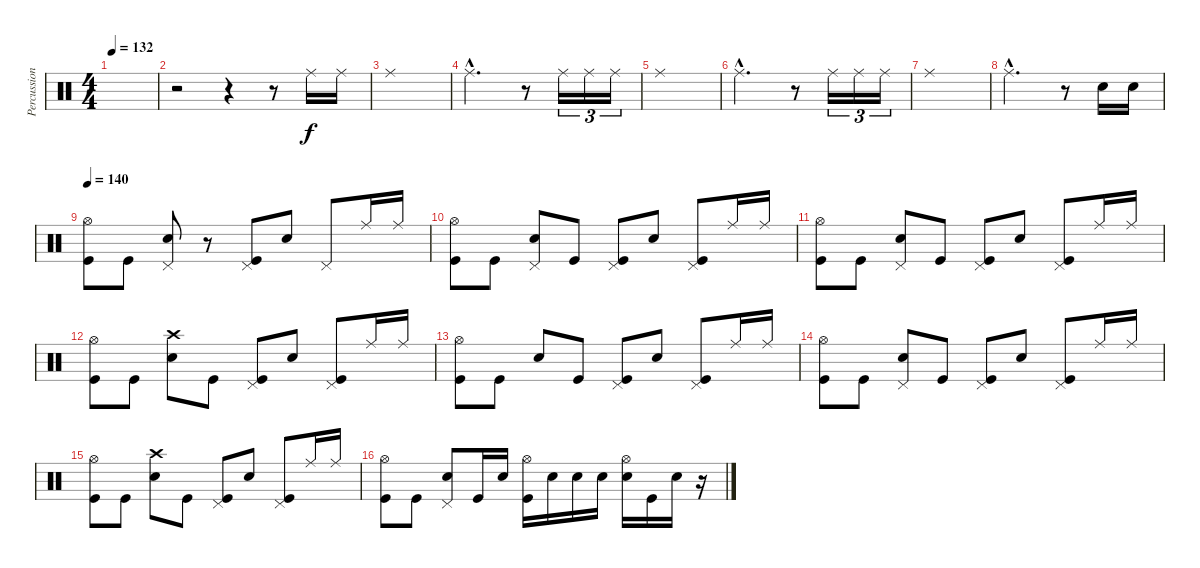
\track ("Percussion" "Percussion") {instrument percussion}
\staff {score}
\articulation defaults
\ts (4 4)
\tempo 132
\clef neutral
\ks c
|
r.2 r.4 r.8 "Ride (middle)".16 "Ride (middle)".16 |
"Ride (middle)".1 |
"Ride (middle)"{hac}.2{d} r.8 "Ride (middle)".16{tu (3 2)} "Ride (middle)".16{tu (3 2)} "Ride (middle)".16{tu (3 2)} |
"Ride (middle)".1 |
"Ride (middle)"{hac}.2{d} r.8 "Ride (middle)".16{tu (3 2)} "Ride (middle)".16{tu (3 2)} "Ride (middle)".16{tu (3 2)} |
"Ride (middle)".1 |
"Ride (middle)"{hac}.2{d} r.8 "Snare (hit) 2".16 "Snare (hit) 2".16 |
\tempo 140
("Hi-Hat (open)" "Kick (hit)").8 "Kick (hit)".8 ("Pedal Hi-Hat (hit)" "Snare (hit) 2").8 r.8 ("Pedal Hi-Hat (hit)" "Kick (hit)").8 "Snare (hit) 2".8 "Pedal Hi-Hat (hit)".8 "Ride (middle)".16 "Ride (middle)".16 |
("Hi-Hat (open)" "Kick (hit)").8 "Kick (hit)".8 ("Pedal Hi-Hat (hit)" "Snare (hit) 2").8 "Kick (hit)".8 ("Pedal Hi-Hat (hit)" "Kick (hit)").8 "Snare (hit) 2".8 ("Pedal Hi-Hat (hit)" "Kick (hit)").8 "Ride (middle)".16 "Ride (middle)".16 |
("Hi-Hat (open)" "Kick (hit)").8 "Kick (hit)".8 ("Pedal Hi-Hat (hit)" "Snare (hit) 2").8 "Kick (hit)".8 ("Pedal Hi-Hat (hit)" "Kick (hit)").8 "Snare (hit) 2".8 ("Pedal Hi-Hat (hit)" "Kick (hit)").8 "Ride (middle)".16 "Ride (middle)".16 |
("Hi-Hat (open)" "Kick (hit)").8 "Kick (hit)".8 ("Crash high (hit)" "Snare (hit) 2").8 "Kick (hit)".8 ("Pedal Hi-Hat (hit)" "Kick (hit)").8 "Snare (hit) 2".8 ("Pedal Hi-Hat (hit)" "Kick (hit)").8 "Ride (middle)".16 "Ride (middle)".16 |
("Hi-Hat (open)" "Kick (hit)").8 "Kick (hit)".8 "Snare (hit) 2".8 "Kick (hit)".8 ("Pedal Hi-Hat (hit)" "Kick (hit)").8 "Snare (hit) 2".8 ("Pedal Hi-Hat (hit)" "Kick (hit)").8 "Ride (middle)".16 "Ride (middle)".16 |
("Hi-Hat (open)" "Kick (hit)").8 "Kick (hit)".8 ("Pedal Hi-Hat (hit)" "Snare (hit) 2").8 "Kick (hit)".8 ("Pedal Hi-Hat (hit)" "Kick (hit)").8 "Snare (hit) 2".8 ("Pedal Hi-Hat (hit)" "Kick (hit)").8 "Ride (middle)".16 "Ride (middle)".16 |
("Hi-Hat (open)" "Kick (hit)").8 "Kick (hit)".8 ("Crash high (hit)" "Snare (hit) 2").8 "Kick (hit)".8 ("Pedal Hi-Hat (hit)" "Kick (hit)").8 "Snare (hit) 2".8 ("Pedal Hi-Hat (hit)" "Kick (hit)").8 "Ride (middle)".16 "Ride (middle)".16 |
("Hi-Hat (open)" "Kick (hit)").8 "Kick (hit)".8 ("Pedal Hi-Hat (hit)" "Snare (hit) 2").8 "Kick (hit)".16 "Snare (hit) 2".16 ("Hi-Hat (open)" "Kick (hit)").16 "Snare (hit) 2".16 "Snare (hit) 2".16 "Snare (hit) 2".16 ("Hi-Hat (open)" "Snare (hit) 2").16 "Kick (hit)".16 "Snare (hit) 2".16 r.16
